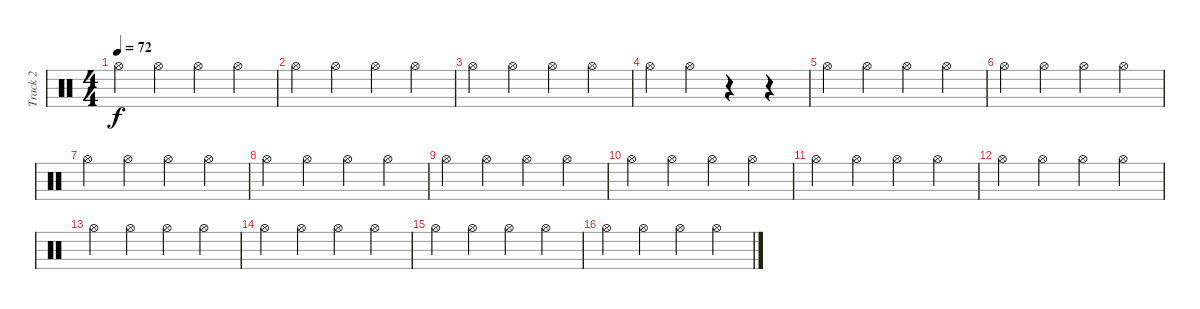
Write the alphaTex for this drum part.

\track ("Track 2" "Track 2") {instrument percussion}
\staff {score}
\articulation defaults
\ts (4 4)
\tempo 72
\clef neutral
\ks c "Hi-Hat (open)".4{dy f} "Hi-Hat (open)".4 "Hi-Hat (open)".4 "Hi-Hat (open)".4
|
"Hi-Hat (open)".4 "Hi-Hat (open)".4 "Hi-Hat (open)".4 "Hi-Hat (open)".4 |
"Hi-Hat (open)".4 "Hi-Hat (open)".4 "Hi-Hat (open)".4 "Hi-Hat (open)".4 |
"Hi-Hat (open)".4 "Hi-Hat (open)".4 r.4 r.4 |
"Hi-Hat (open)".4 "Hi-Hat (open)".4 "Hi-Hat (open)".4 "Hi-Hat (open)".4 |
"Hi-Hat (open)".4 "Hi-Hat (open)".4 "Hi-Hat (open)".4 "Hi-Hat (open)".4 |
"Hi-Hat (open)".4 "Hi-Hat (open)".4 "Hi-Hat (open)".4 "Hi-Hat (open)".4 |
"Hi-Hat (open)".4 "Hi-Hat (open)".4 "Hi-Hat (open)".4 "Hi-Hat (open)".4 |
"Hi-Hat (open)".4 "Hi-Hat (open)".4 "Hi-Hat (open)".4 "Hi-Hat (open)".4 |
"Hi-Hat (open)".4 "Hi-Hat (open)".4 "Hi-Hat (open)".4 "Hi-Hat (open)".4 |
"Hi-Hat (open)".4 "Hi-Hat (open)".4 "Hi-Hat (open)".4 "Hi-Hat (open)".4 |
"Hi-Hat (open)".4 "Hi-Hat (open)".4 "Hi-Hat (open)".4 "Hi-Hat (open)".4 |
"Hi-Hat (open)".4 "Hi-Hat (open)".4 "Hi-Hat (open)".4 "Hi-Hat (open)".4 |
"Hi-Hat (open)".4 "Hi-Hat (open)".4 "Hi-Hat (open)".4 "Hi-Hat (open)".4 |
"Hi-Hat (open)".4 "Hi-Hat (open)".4 "Hi-Hat (open)".4 "Hi-Hat (open)".4 |
"Hi-Hat (open)".4 "Hi-Hat (open)".4 "Hi-Hat (open)".4 "Hi-Hat (open)".4
